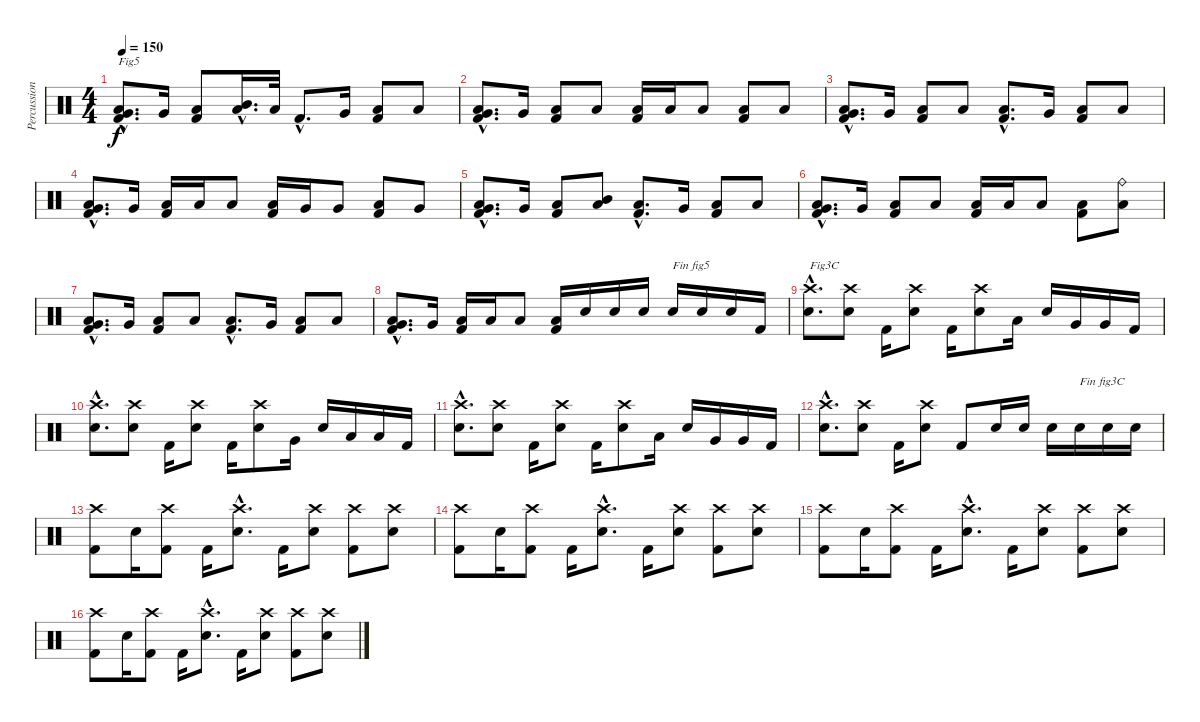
\track ("Percussions" "Percussion") {instrument percussion}
\staff {score}
\articulation defaults
\ts (4 4)
\tempo 150
\clef neutral
\ks c
("Kick (hit) 2"{hac} "Low Floor Tom (hit)"{hac} "Very Low Tom (hit)"{hac}).8{d txt "Fig5" dy f} "Very Low Tom (hit)".16 ("Kick (hit) 2" "Low Floor Tom (hit)").8 ("Mid Tom (hit)"{hac} "Low Tom (hit)"{hac}).16{d} "Low Floor Tom (hit)".32 "Kick (hit) 2"{hac}.8{d} "Very Low Tom (hit)".16 ("Kick (hit) 2" "Low Floor Tom (hit)").8 "Low Tom (hit)".8 |
("Kick (hit) 2"{hac} "Low Floor Tom (hit)"{hac} "Very Low Tom (hit)"{hac}).8{d} "Very Low Tom (hit)".16 ("Kick (hit) 2" "Low Floor Tom (hit)").8 "Low Tom (hit)".8 ("Kick (hit) 2" "Low Floor Tom (hit)").16 "Low Tom (hit)".16 "Low Tom (hit)".8 ("Kick (hit) 2" "Low Floor Tom (hit)").8 "Low Tom (hit)".8 |
("Kick (hit) 2"{hac} "Low Floor Tom (hit)"{hac} "Very Low Tom (hit)"{hac}).8{d} "Very Low Tom (hit)".16 ("Kick (hit) 2" "Low Floor Tom (hit)").8 "Low Tom (hit)".8 ("Kick (hit) 2"{hac} "Low Floor Tom (hit)"{hac}).8{d} "Very Low Tom (hit)".16 ("Kick (hit) 2" "Low Floor Tom (hit)").8 "Low Tom (hit)".8 |
("Kick (hit) 2"{hac} "Low Floor Tom (hit)"{hac} "Very Low Tom (hit)"{hac}).8{d} "Very Low Tom (hit)".16 ("Kick (hit) 2" "Low Floor Tom (hit)").16 "Low Tom (hit)".16 "Low Tom (hit)".8 ("Kick (hit) 2" "Low Floor Tom (hit)").16 "Very Low Tom (hit)".16 "Very Low Tom (hit)".8 ("Kick (hit) 2" "Low Floor Tom (hit)").8 "Very Low Tom (hit)".8 |
("Kick (hit) 2"{hac} "Low Floor Tom (hit)"{hac} "Very Low Tom (hit)"{hac}).8{d} "Very Low Tom (hit)".16 ("Kick (hit) 2" "Low Floor Tom (hit)").8 ("Mid Tom (hit)" "Low Tom (hit)").8 ("Kick (hit) 2"{hac} "Low Floor Tom (hit)"{hac}).8{d} "Very Low Tom (hit)".16 ("Kick (hit) 2" "Low Floor Tom (hit)").8 "Low Tom (hit)".8 |
("Kick (hit) 2"{hac} "Low Floor Tom (hit)"{hac} "Very Low Tom (hit)"{hac}).8{d} "Very Low Tom (hit)".16 ("Kick (hit) 2" "Low Floor Tom (hit)").8 "Low Tom (hit)".8 ("Kick (hit) 2" "Low Floor Tom (hit)").16 "Low Tom (hit)".16 "Low Tom (hit)".8 ("Kick (hit) 2" "Low Floor Tom (hit)").8 ("Low Tom (hit)" "Ride (bell)").8 |
("Kick (hit) 2"{hac} "Low Floor Tom (hit)"{hac} "Very Low Tom (hit)"{hac}).8{d} "Very Low Tom (hit)".16 ("Kick (hit) 2" "Low Floor Tom (hit)").8 "Low Tom (hit)".8 ("Kick (hit) 2"{hac} "Low Floor Tom (hit)"{hac}).8{d} "Very Low Tom (hit)".16 ("Kick (hit) 2" "Low Floor Tom (hit)").8 "Low Tom (hit)".8 |
("Kick (hit) 2"{hac} "Low Floor Tom (hit)"{hac} "Very Low Tom (hit)"{hac}).8{d} "Very Low Tom (hit)".16 ("Kick (hit) 2" "Low Floor Tom (hit)").16 "Low Tom (hit)".16 "Low Tom (hit)".8 ("Kick (hit) 2" "Low Floor Tom (hit)").16 "Electric Snare (hit)".16 "Electric Snare (hit)".16 "Electric Snare (hit)".16 "Electric Snare (hit)".16{txt "Fin fig5"} "Electric Snare (hit)".16 "Electric Snare (hit)".16 "Kick (hit) 2".16 |
("Electric Snare (hit)"{hac} "Crash high (hit)"{hac}).8{d txt "Fig3C"} ("Electric Snare (hit)" "Crash high (hit)").8 "Kick (hit) 2".16 ("Electric Snare (hit)" "Crash high (hit)").8 "Kick (hit) 2".16 ("Electric Snare (hit)" "Crash high (hit)").8 "Low Tom (hit)".16 "Electric Snare (hit)".16 "Very Low Tom (hit)".16 "Very Low Tom (hit)".16 "Kick (hit) 2".16 |
("Electric Snare (hit)"{hac} "Crash high (hit)"{hac}).8{d} ("Electric Snare (hit)" "Crash high (hit)").8 "Kick (hit) 2".16 ("Electric Snare (hit)" "Crash high (hit)").8 "Kick (hit) 2".16 ("Electric Snare (hit)" "Crash high (hit)").8 "Very Low Tom (hit)".16 "Electric Snare (hit)".16 "Low Tom (hit)".16 "Low Tom (hit)".16 "Kick (hit) 2".16 |
("Electric Snare (hit)"{hac} "Crash high (hit)"{hac}).8{d} ("Electric Snare (hit)" "Crash high (hit)").8 "Kick (hit) 2".16 ("Electric Snare (hit)" "Crash high (hit)").8 "Kick (hit) 2".16 ("Electric Snare (hit)" "Crash high (hit)").8 "Low Tom (hit)".16 "Electric Snare (hit)".16 "Very Low Tom (hit)".16 "Very Low Tom (hit)".16 "Kick (hit) 2".16 |
("Electric Snare (hit)"{hac} "Crash high (hit)"{hac}).8{d} ("Electric Snare (hit)" "Crash high (hit)").8 "Kick (hit) 2".16 ("Electric Snare (hit)" "Crash high (hit)").8 "Kick (hit) 2".8 "Electric Snare (hit)".16 "Electric Snare (hit)".16 "Electric Snare (hit)".16 "Electric Snare (hit)".16{txt "Fin fig3C"} "Electric Snare (hit)".16 "Electric Snare (hit)".16 |
("Kick (hit) 2" "Crash high (hit)").8 "Electric Snare (hit)".16 ("Kick (hit) 2" "Crash high (hit)").8 "Kick (hit) 2".16 ("Electric Snare (hit)"{hac} "Crash high (hit)"{hac}).8{d} "Kick (hit) 2".16 ("Electric Snare (hit)" "Crash high (hit)").8 ("Kick (hit) 2" "Crash high (hit)").8 ("Electric Snare (hit)" "Crash high (hit)").8 |
("Kick (hit) 2" "Crash high (hit)").8 "Electric Snare (hit)".16 ("Kick (hit) 2" "Crash high (hit)").8 "Kick (hit) 2".16 ("Electric Snare (hit)"{hac} "Crash high (hit)"{hac}).8{d} "Kick (hit) 2".16 ("Electric Snare (hit)" "Crash high (hit)").8 ("Kick (hit) 2" "Crash high (hit)").8 ("Electric Snare (hit)" "Crash high (hit)").8 |
("Kick (hit) 2" "Crash high (hit)").8 "Electric Snare (hit)".16 ("Kick (hit) 2" "Crash high (hit)").8 "Kick (hit) 2".16 ("Electric Snare (hit)"{hac} "Crash high (hit)"{hac}).8{d} "Kick (hit) 2".16 ("Electric Snare (hit)" "Crash high (hit)").8 ("Kick (hit) 2" "Crash high (hit)").8 ("Electric Snare (hit)" "Crash high (hit)").8 |
("Kick (hit) 2" "Crash high (hit)").8 "Electric Snare (hit)".16 ("Kick (hit) 2" "Crash high (hit)").8 "Kick (hit) 2".16 ("Electric Snare (hit)"{hac} "Crash high (hit)"{hac}).8{d} "Kick (hit) 2".16 ("Electric Snare (hit)" "Crash high (hit)").8 ("Kick (hit) 2" "Crash high (hit)").8 ("Electric Snare (hit)" "Crash high (hit)").8
